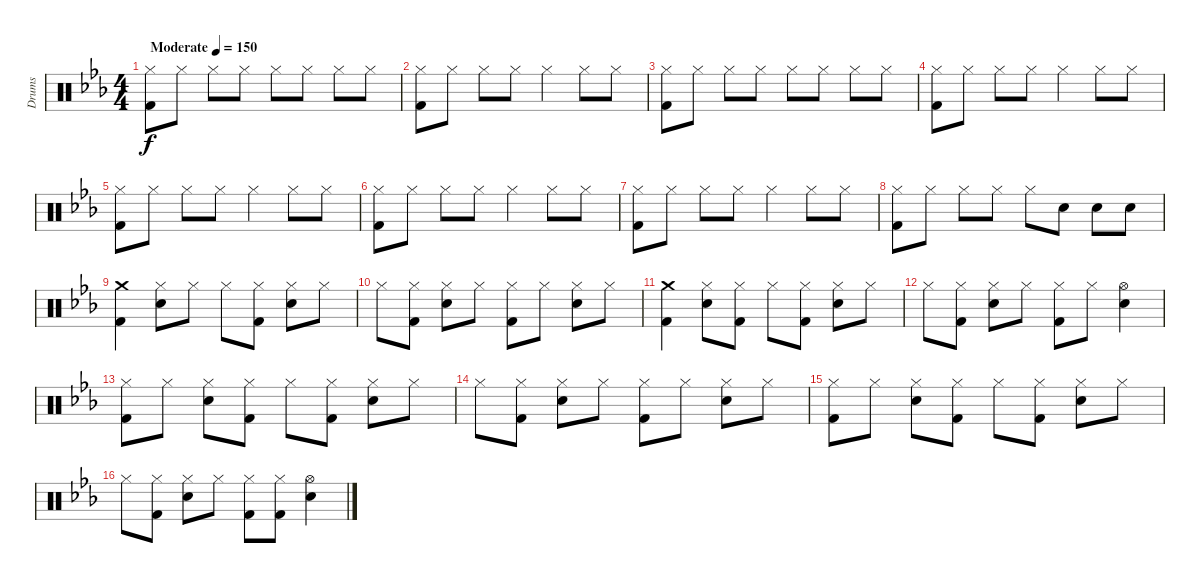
\track ("Drums" "Drums") {instrument percussion}
\staff {score}
\articulation defaults
\ts (4 4)
\tempo (150 "Moderate")
\clef neutral
\ks eb
("Hi-Hat (closed)" "Kick (hit) 2").8{dy f} "Hi-Hat (closed)".8 "Hi-Hat (closed)".8 "Hi-Hat (closed)".8 "Hi-Hat (closed)".8 "Hi-Hat (closed)".8 "Hi-Hat (closed)".8 "Hi-Hat (closed)".8 |
("Hi-Hat (closed)" "Kick (hit) 2").8 "Hi-Hat (closed)".8 "Hi-Hat (closed)".8 "Hi-Hat (closed)".8 "Hi-Hat (closed)".4 "Hi-Hat (closed)".8 "Hi-Hat (closed)".8 |
("Hi-Hat (closed)" "Kick (hit) 2").8 "Hi-Hat (closed)".8 "Hi-Hat (closed)".8 "Hi-Hat (closed)".8 "Hi-Hat (closed)".8 "Hi-Hat (closed)".8 "Hi-Hat (closed)".8 "Hi-Hat (closed)".8 |
("Hi-Hat (closed)" "Kick (hit) 2").8 "Hi-Hat (closed)".8 "Hi-Hat (closed)".8 "Hi-Hat (closed)".8 "Hi-Hat (closed)".4 "Hi-Hat (closed)".8 "Hi-Hat (closed)".8 |
("Hi-Hat (closed)" "Kick (hit) 2").8 "Hi-Hat (closed)".8 "Hi-Hat (closed)".8 "Hi-Hat (closed)".8 "Hi-Hat (closed)".4 "Hi-Hat (closed)".8 "Hi-Hat (closed)".8 |
("Hi-Hat (closed)" "Kick (hit) 2").8 "Hi-Hat (closed)".8 "Hi-Hat (closed)".8 "Hi-Hat (closed)".8 "Hi-Hat (closed)".4 "Hi-Hat (closed)".8 "Hi-Hat (closed)".8 |
("Hi-Hat (closed)" "Kick (hit) 2").8 "Hi-Hat (closed)".8 "Hi-Hat (closed)".8 "Hi-Hat (closed)".8 "Hi-Hat (closed)".4 "Hi-Hat (closed)".8 "Hi-Hat (closed)".8 |
("Hi-Hat (closed)" "Kick (hit) 2").8 "Hi-Hat (closed)".8 "Hi-Hat (closed)".8 "Hi-Hat (closed)".8 "Hi-Hat (closed)".8 "Electric Snare (hit)".8 "Electric Snare (hit)".8 "Electric Snare (hit)".8 |
("Crash medium (hit)" "Kick (hit) 2").4 ("Hi-Hat (closed)" "Electric Snare (hit)").8 "Hi-Hat (closed)".8 "Hi-Hat (closed)".8 ("Hi-Hat (closed)" "Kick (hit) 2").8 ("Hi-Hat (closed)" "Electric Snare (hit)").8 "Hi-Hat (closed)".8 |
"Hi-Hat (closed)".8 ("Hi-Hat (closed)" "Kick (hit) 2").8 ("Hi-Hat (closed)" "Electric Snare (hit)").8 "Hi-Hat (closed)".8 ("Hi-Hat (closed)" "Kick (hit) 2").8 "Hi-Hat (closed)".8 ("Hi-Hat (closed)" "Electric Snare (hit)").8 "Hi-Hat (closed)".8 |
("Crash medium (hit)" "Kick (hit) 2").4 ("Hi-Hat (closed)" "Electric Snare (hit)").8 ("Hi-Hat (closed)" "Kick (hit) 2").8 "Hi-Hat (closed)".8 ("Hi-Hat (closed)" "Kick (hit) 2").8 ("Hi-Hat (closed)" "Electric Snare (hit)").8 "Hi-Hat (closed)".8 |
"Hi-Hat (closed)".8 ("Hi-Hat (closed)" "Kick (hit) 2").8 ("Hi-Hat (closed)" "Electric Snare (hit)").8 "Hi-Hat (closed)".8 ("Hi-Hat (closed)" "Kick (hit) 2").8 "Hi-Hat (closed)".8 ("Hi-Hat (open)" "Electric Snare (hit)").4 |
("Hi-Hat (closed)" "Kick (hit) 2").8 "Hi-Hat (closed)".8 ("Hi-Hat (closed)" "Electric Snare (hit)").8 ("Hi-Hat (closed)" "Kick (hit) 2").8 "Hi-Hat (closed)".8 ("Hi-Hat (closed)" "Kick (hit) 2").8 ("Hi-Hat (closed)" "Electric Snare (hit)").8 "Hi-Hat (closed)".8 |
"Hi-Hat (closed)".8 ("Hi-Hat (closed)" "Kick (hit) 2").8 ("Hi-Hat (closed)" "Electric Snare (hit)").8 "Hi-Hat (closed)".8 ("Hi-Hat (closed)" "Kick (hit) 2").8 "Hi-Hat (closed)".8 ("Hi-Hat (closed)" "Electric Snare (hit)").8 "Hi-Hat (closed)".8 |
("Hi-Hat (closed)" "Kick (hit) 2").8 "Hi-Hat (closed)".8 ("Hi-Hat (closed)" "Electric Snare (hit)").8 ("Hi-Hat (closed)" "Kick (hit) 2").8 "Hi-Hat (closed)".8 ("Hi-Hat (closed)" "Kick (hit) 2").8 ("Hi-Hat (closed)" "Electric Snare (hit)").8 "Hi-Hat (closed)".8 |
"Hi-Hat (closed)".8 ("Hi-Hat (closed)" "Kick (hit) 2").8 ("Hi-Hat (closed)" "Electric Snare (hit)").8 "Hi-Hat (closed)".8 ("Hi-Hat (closed)" "Kick (hit) 2").8 ("Hi-Hat (closed)" "Kick (hit) 2").8 ("Hi-Hat (open)" "Electric Snare (hit)").4
